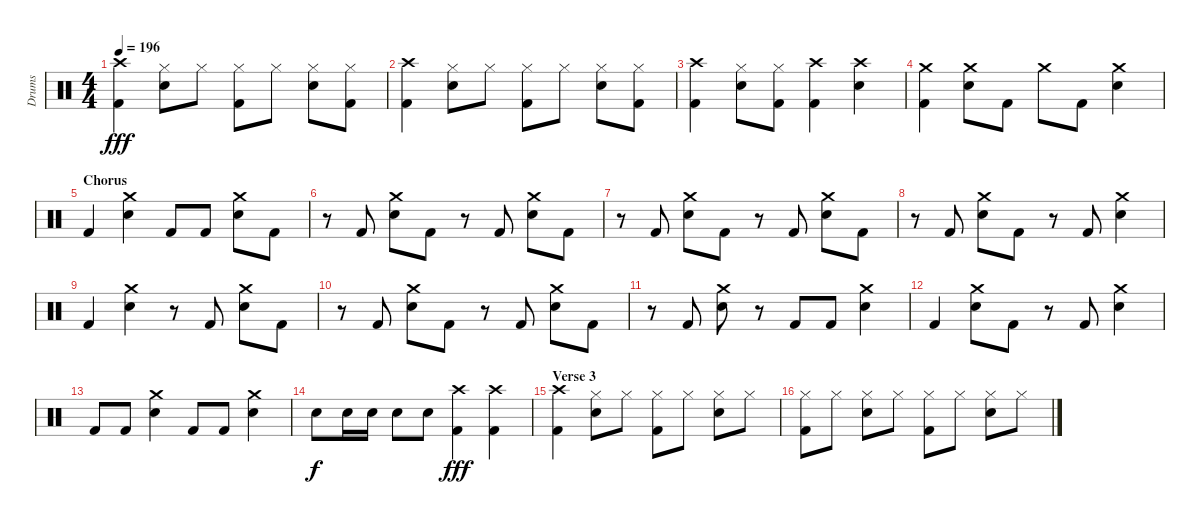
\track ("Drums" "Drums") {instrument percussion}
\staff {score}
\articulation defaults
\ts (4 4)
\tempo 196
\clef neutral
\ks c
("Crash high (hit)" "Kick (hit) 2").4{dy fff} ("Hi-Hat (closed)" "Snare (hit) 2").8 "Hi-Hat (closed)".8 ("Hi-Hat (closed)" "Kick (hit) 2").8 "Hi-Hat (closed)".8 ("Hi-Hat (closed)" "Snare (hit) 2").8 ("Hi-Hat (closed)" "Kick (hit) 2").8 |
("Crash high (hit)" "Kick (hit) 2").4 ("Hi-Hat (closed)" "Snare (hit) 2").8 "Hi-Hat (closed)".8 ("Hi-Hat (closed)" "Kick (hit) 2").8 "Hi-Hat (closed)".8 ("Hi-Hat (closed)" "Snare (hit) 2").8 ("Hi-Hat (closed)" "Kick (hit) 2").8 |
("Crash high (hit)" "Kick (hit) 2").4 ("Hi-Hat (closed)" "Snare (hit) 2").8 ("Hi-Hat (closed)" "Kick (hit) 2").8 ("Crash high (hit)" "Kick (hit) 2").4 ("Crash high (hit)" "Snare (hit) 2").4 |
("Crash medium (hit)" "Kick (hit) 2").4 ("Crash medium (hit)" "Snare (hit) 2").8 "Kick (hit) 2".8 "Crash medium (hit)".8 "Kick (hit) 2".8 ("Crash medium (hit)" "Snare (hit) 2").4 |
\section ("" "Chorus")
"Kick (hit) 2".4 ("Crash medium (hit)" "Snare (hit) 2").4 "Kick (hit) 2".8 "Kick (hit) 2".8 ("Crash medium (hit)" "Snare (hit) 2").8 "Kick (hit) 2".8 |
r.8 "Kick (hit) 2".8 ("Crash medium (hit)" "Snare (hit) 2").8 "Kick (hit) 2".8 r.8 "Kick (hit) 2".8 ("Crash medium (hit)" "Snare (hit) 2").8 "Kick (hit) 2".8 |
r.8 "Kick (hit) 2".8 ("Crash medium (hit)" "Snare (hit) 2").8 "Kick (hit) 2".8 r.8 "Kick (hit) 2".8 ("Crash medium (hit)" "Snare (hit) 2").8 "Kick (hit) 2".8 |
r.8 "Kick (hit) 2".8 ("Crash medium (hit)" "Snare (hit) 2").8 "Kick (hit) 2".8 r.8 "Kick (hit) 2".8 ("Crash medium (hit)" "Snare (hit) 2").4 |
"Kick (hit) 2".4 ("Crash medium (hit)" "Snare (hit) 2").4 r.8 "Kick (hit) 2".8 ("Crash medium (hit)" "Snare (hit) 2").8 "Kick (hit) 2".8 |
r.8 "Kick (hit) 2".8 ("Crash medium (hit)" "Snare (hit) 2").8 "Kick (hit) 2".8 r.8 "Kick (hit) 2".8 ("Crash medium (hit)" "Snare (hit) 2").8 "Kick (hit) 2".8 |
r.8 "Kick (hit) 2".8 ("Crash medium (hit)" "Snare (hit) 2").8 r.8 "Kick (hit) 2".8 "Kick (hit) 2".8 ("Crash medium (hit)" "Snare (hit) 2").4 |
"Kick (hit) 2".4 ("Crash medium (hit)" "Snare (hit) 2").8 "Kick (hit) 2".8 r.8 "Kick (hit) 2".8 ("Crash medium (hit)" "Snare (hit) 2").4 |
"Kick (hit) 2".8 "Kick (hit) 2".8 ("Crash medium (hit)" "Snare (hit) 2").4 "Kick (hit) 2".8 "Kick (hit) 2".8 ("Crash medium (hit)" "Snare (hit) 2").4 |
"Snare (hit) 2".8{dy f} "Snare (hit) 2".16 "Snare (hit) 2".16 "Snare (hit) 2".8 "Snare (hit) 2".8 ("Crash high (hit)" "Kick (hit) 2").4{dy fff} ("Crash high (hit)" "Kick (hit) 2").4 |
\section ("" "Verse 3")
("Crash high (hit)" "Kick (hit) 2").4 ("Hi-Hat (closed)" "Snare (hit) 2").8 "Hi-Hat (closed)".8 ("Hi-Hat (closed)" "Kick (hit) 2").8 "Hi-Hat (closed)".8 ("Hi-Hat (closed)" "Snare (hit) 2").8 "Hi-Hat (closed)".8 |
("Hi-Hat (closed)" "Kick (hit) 2").8 "Hi-Hat (closed)".8 ("Hi-Hat (closed)" "Snare (hit) 2").8 "Hi-Hat (closed)".8 ("Hi-Hat (closed)" "Kick (hit) 2").8 "Hi-Hat (closed)".8 ("Hi-Hat (closed)" "Snare (hit) 2").8 "Hi-Hat (closed)".8
